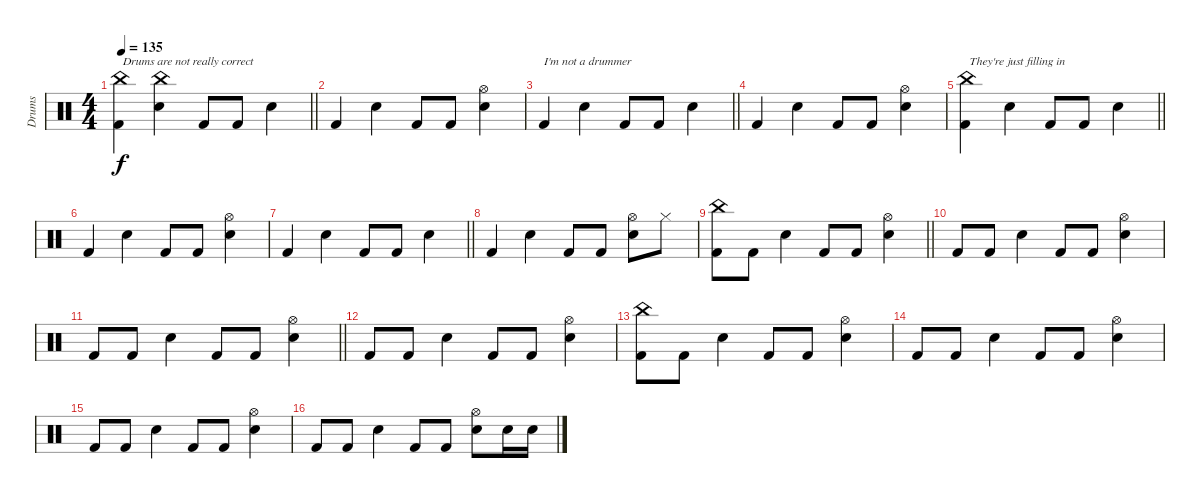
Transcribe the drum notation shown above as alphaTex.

\track ("Drums" "Drums") {instrument percussion}
\staff {score}
\articulation defaults
\ts (4 4)
\tempo 135
\clef neutral
\barLineRight lightlight
\ks c
("China (hit)" "Kick (hit) 2").4{txt "Drums are not really correct" dy f} ("China (hit)" "Electric Snare (hit)").4 "Kick (hit) 2".8 "Kick (hit) 2".8 "Electric Snare (hit)".4 |
"Kick (hit) 2".4 "Electric Snare (hit)".4 "Kick (hit) 2".8 "Kick (hit) 2".8 ("Hi-Hat (open)" "Electric Snare (hit)").4 |
\barLineRight lightlight "Kick (hit) 2".4{txt "I'm not a drummer"} "Electric Snare (hit)".4 "Kick (hit) 2".8 "Kick (hit) 2".8 "Electric Snare (hit)".4
|
"Kick (hit) 2".4 "Electric Snare (hit)".4 "Kick (hit) 2".8 "Kick (hit) 2".8 ("Hi-Hat (open)" "Electric Snare (hit)").4 |
\barLineRight lightlight
("China (hit)" "Kick (hit) 2").4{txt "They're just filling in"} "Electric Snare (hit)".4 "Kick (hit) 2".8 "Kick (hit) 2".8 "Electric Snare (hit)".4 |
"Kick (hit) 2".4 "Electric Snare (hit)".4 "Kick (hit) 2".8 "Kick (hit) 2".8 ("Hi-Hat (open)" "Electric Snare (hit)").4 |
\barLineRight lightlight "Kick (hit) 2".4 "Electric Snare (hit)".4 "Kick (hit) 2".8 "Kick (hit) 2".8 "Electric Snare (hit)".4
|
"Kick (hit) 2".4 "Electric Snare (hit)".4 "Kick (hit) 2".8 "Kick (hit) 2".8 ("Electric Snare (hit)" "Hi-Hat (open)").8 "Hi-Hat (closed)".8 |
\barLineRight lightlight
("China (hit)" "Kick (hit) 2").8 "Kick (hit) 2".8 "Electric Snare (hit)".4 "Kick (hit) 2".8 "Kick (hit) 2".8 ("Hi-Hat (open)" "Electric Snare (hit)").4 |
"Kick (hit) 2".8 "Kick (hit) 2".8 "Electric Snare (hit)".4 "Kick (hit) 2".8 "Kick (hit) 2".8 ("Hi-Hat (open)" "Electric Snare (hit)").4 |
\barLineRight lightlight "Kick (hit) 2".8 "Kick (hit) 2".8 "Electric Snare (hit)".4 "Kick (hit) 2".8 "Kick (hit) 2".8
("Hi-Hat (open)" "Electric Snare (hit)").4 |
"Kick (hit) 2".8 "Kick (hit) 2".8 "Electric Snare (hit)".4 "Kick (hit) 2".8 "Kick (hit) 2".8 ("Hi-Hat (open)" "Electric Snare (hit)").4 |
("China (hit)" "Kick (hit) 2").8 "Kick (hit) 2".8 "Electric Snare (hit)".4 "Kick (hit) 2".8 "Kick (hit) 2".8 ("Hi-Hat (open)" "Electric Snare (hit)").4 |
"Kick (hit) 2".8 "Kick (hit) 2".8 "Electric Snare (hit)".4 "Kick (hit) 2".8 "Kick (hit) 2".8 ("Hi-Hat (open)" "Electric Snare (hit)").4 |
"Kick (hit) 2".8 "Kick (hit) 2".8 "Electric Snare (hit)".4 "Kick (hit) 2".8 "Kick (hit) 2".8 ("Hi-Hat (open)" "Electric Snare (hit)").4 |
"Kick (hit) 2".8 "Kick (hit) 2".8 "Electric Snare (hit)".4 "Kick (hit) 2".8 "Kick (hit) 2".8 ("Hi-Hat (open)" "Electric Snare (hit)").8 "Electric Snare (hit)".16 "Electric Snare (hit)".16
